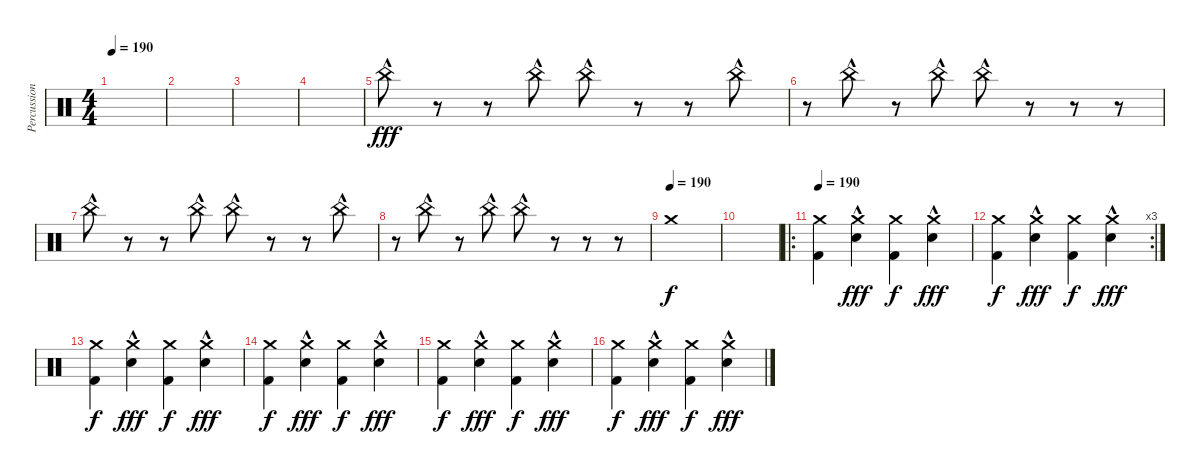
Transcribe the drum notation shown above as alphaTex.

\track ("Percussion" "Percussion") {instrument percussion}
\staff {score}
\articulation defaults
\ts (4 4)
\tempo 190
\clef neutral
\ks c
|
|
|
|
"China (hit)"{hac}.8{dy fff volume 16} r.8{volume 0} r.8 "China (hit)"{hac}.8{volume 16} "China (hit)"{hac}.8 r.8{volume 0} r.8 "China (hit)"{hac}.8{volume 16} |
r.8{volume 0} "China (hit)"{hac}.8{volume 16} r.8{volume 0} "China (hit)"{hac}.8{volume 16} "China (hit)"{hac}.8 r.8{volume 0} r.8 r.8 |
"China (hit)"{hac}.8{volume 16} r.8{volume 0} r.8 "China (hit)"{hac}.8{volume 16} "China (hit)"{hac}.8 r.8{volume 0} r.8 "China (hit)"{hac}.8{volume 16} |
r.8{volume 0} "China (hit)"{hac}.8{volume 16} r.8{volume 0} "China (hit)"{hac}.8{volume 16} "China (hit)"{hac}.8 r.8{volume 0} r.8 r.8 |
\tempo (190)
"Crash medium (hit)".1{dy f volume 16} |
|
\ro
\tempo 190
("Crash medium (hit)" "Kick (hit) 2").4 ("Crash medium (hit)" "Snare (hit) 2"{hac}).4{dy fff} ("Crash medium (hit)" "Kick (hit) 2").4{dy f} ("Crash medium (hit)" "Snare (hit) 2"{hac}).4{dy fff} |
\rc 3
("Crash medium (hit)" "Kick (hit) 2").4{dy f} ("Crash medium (hit)" "Snare (hit) 2"{hac}).4{dy fff} ("Crash medium (hit)" "Kick (hit) 2").4{dy f} ("Crash medium (hit)" "Snare (hit) 2"{hac}).4{dy fff} |
("Crash medium (hit)" "Kick (hit) 2").4{dy f} ("Crash medium (hit)" "Snare (hit) 2"{hac}).4{dy fff} ("Crash medium (hit)" "Kick (hit) 2").4{dy f} ("Crash medium (hit)" "Snare (hit) 2"{hac}).4{dy fff} |
("Crash medium (hit)" "Kick (hit) 2").4{dy f} ("Crash medium (hit)" "Snare (hit) 2"{hac}).4{dy fff} ("Crash medium (hit)" "Kick (hit) 2").4{dy f} ("Crash medium (hit)" "Snare (hit) 2"{hac}).4{dy fff} |
("Crash medium (hit)" "Kick (hit) 2").4{dy f} ("Crash medium (hit)" "Snare (hit) 2"{hac}).4{dy fff} ("Crash medium (hit)" "Kick (hit) 2").4{dy f} ("Crash medium (hit)" "Snare (hit) 2"{hac}).4{dy fff} |
("Crash medium (hit)" "Kick (hit) 2").4{dy f} ("Crash medium (hit)" "Snare (hit) 2"{hac}).4{dy fff} ("Crash medium (hit)" "Kick (hit) 2").4{dy f} ("Crash medium (hit)" "Snare (hit) 2"{hac}).4{dy fff}
